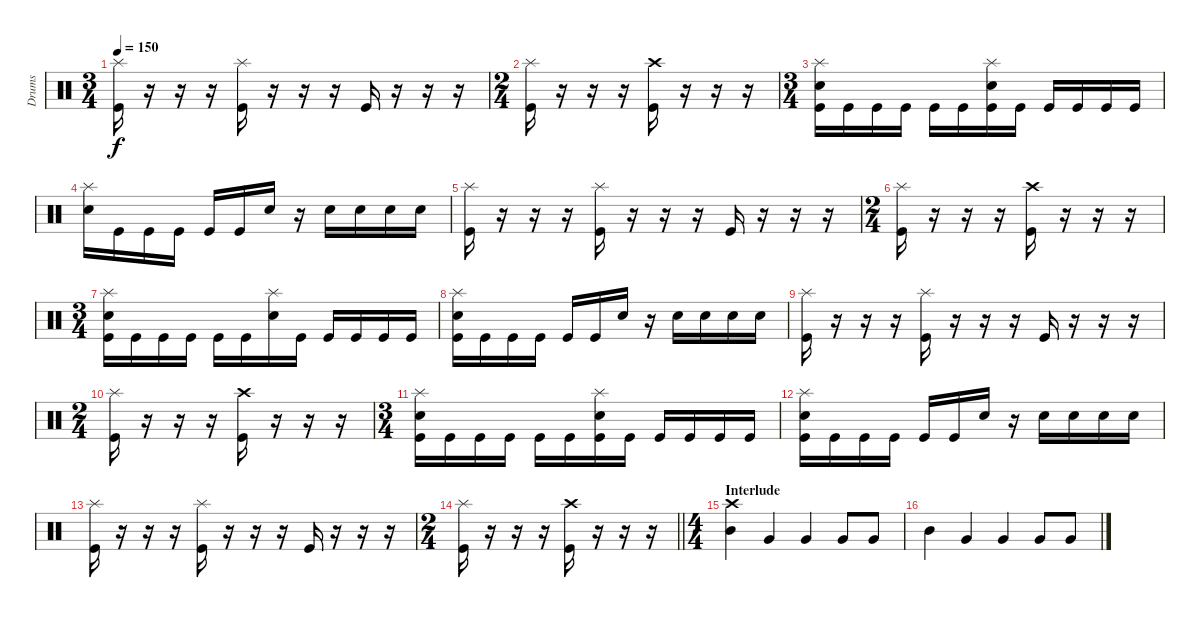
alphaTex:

\track ("Drums" "Drums") {instrument percussion}
\staff
\articulation defaults
\ts (3 4)
\tempo 150
\clef neutral
\ks c
("Splash (hit)" "Kick (hit)").16{dy f} r.16 r.16 r.16 ("Splash (hit)" "Kick (hit)").16 r.16 r.16 r.16 "Kick (hit)".16 r.16 r.16 r.16 |
\ts (2 4)
("Splash (hit)" "Kick (hit)").16 r.16 r.16 r.16 ("Crash high (hit)" "Kick (hit)").16 r.16 r.16 r.16 |
\ts (3 4)
("Splash (hit)" "Snare (hit) 2" "Kick (hit)").16 "Kick (hit)".16 "Kick (hit)".16 "Kick (hit)".16 "Kick (hit)".16 "Kick (hit)".16 ("Splash (hit)" "Snare (hit) 2" "Kick (hit)").16 "Kick (hit)".16 "Kick (hit)".16 "Kick (hit)".16 "Kick (hit)".16 "Kick (hit)".16 |
("Splash (hit)" "Snare (hit) 2").16 "Kick (hit)".16 "Kick (hit)".16 "Kick (hit)".16 "Kick (hit)".16 "Kick (hit)".16 "Snare (hit) 2".16 r.16 "Snare (hit) 2".16 "Snare (hit) 2".16 "Snare (hit) 2".16 "Snare (hit) 2".16 |
("Splash (hit)" "Kick (hit)").16 r.16 r.16 r.16 ("Splash (hit)" "Kick (hit)").16 r.16 r.16 r.16 "Kick (hit)".16 r.16 r.16 r.16 |
\ts (2 4)
("Splash (hit)" "Kick (hit)").16 r.16 r.16 r.16 ("Crash high (hit)" "Kick (hit)").16 r.16 r.16 r.16 |
\ts (3 4)
("Splash (hit)" "Snare (hit) 2" "Kick (hit)").16 "Kick (hit)".16 "Kick (hit)".16 "Kick (hit)".16 "Kick (hit)".16 "Kick (hit)".16 ("Splash (hit)" "Snare (hit) 2").16 "Kick (hit)".16 "Kick (hit)".16 "Kick (hit)".16 "Kick (hit)".16 "Kick (hit)".16 |
("Splash (hit)" "Snare (hit) 2" "Kick (hit)").16 "Kick (hit)".16 "Kick (hit)".16 "Kick (hit)".16 "Kick (hit)".16 "Kick (hit)".16 "Snare (hit) 2".16 r.16 "Snare (hit) 2".16 "Snare (hit) 2".16 "Snare (hit) 2".16 "Snare (hit) 2".16 |
("Splash (hit)" "Kick (hit)").16 r.16 r.16 r.16 ("Splash (hit)" "Kick (hit)").16 r.16 r.16 r.16 "Kick (hit)".16 r.16 r.16 r.16 |
\ts (2 4)
("Splash (hit)" "Kick (hit)").16 r.16 r.16 r.16 ("Crash high (hit)" "Kick (hit)").16 r.16 r.16 r.16 |
\ts (3 4)
("Splash (hit)" "Snare (hit) 2" "Kick (hit)").16 "Kick (hit)".16 "Kick (hit)".16 "Kick (hit)".16 "Kick (hit)".16 "Kick (hit)".16 ("Splash (hit)" "Snare (hit) 2" "Kick (hit)").16 "Kick (hit)".16 "Kick (hit)".16 "Kick (hit)".16 "Kick (hit)".16 "Kick (hit)".16 |
("Splash (hit)" "Snare (hit) 2" "Kick (hit)").16 "Kick (hit)".16 "Kick (hit)".16 "Kick (hit)".16 "Kick (hit)".16 "Kick (hit)".16 "Snare (hit) 2".16 r.16 "Snare (hit) 2".16 "Snare (hit) 2".16 "Snare (hit) 2".16 "Snare (hit) 2".16 |
("Splash (hit)" "Kick (hit)").16 r.16 r.16 r.16 ("Splash (hit)" "Kick (hit)").16 r.16 r.16 r.16 "Kick (hit)".16 r.16 r.16 r.16 |
\ts (2 4)
\barLineRight lightlight
("Splash (hit)" "Kick (hit)").16 r.16 r.16 r.16 ("Crash high (hit)" "Kick (hit)").16 r.16 r.16 r.16 |
\ts (4 4)
\section ("" "Interlude")
("Crash high (hit)" "Mid Tom (hit)").4 "Very Low Tom (hit)".4 "Very Low Tom (hit)".4 "Very Low Tom (hit)".8 "Very Low Tom (hit)".8 |
"Mid Tom (hit)".4 "Very Low Tom (hit)".4 "Very Low Tom (hit)".4 "Very Low Tom (hit)".8 "Very Low Tom (hit)".8
